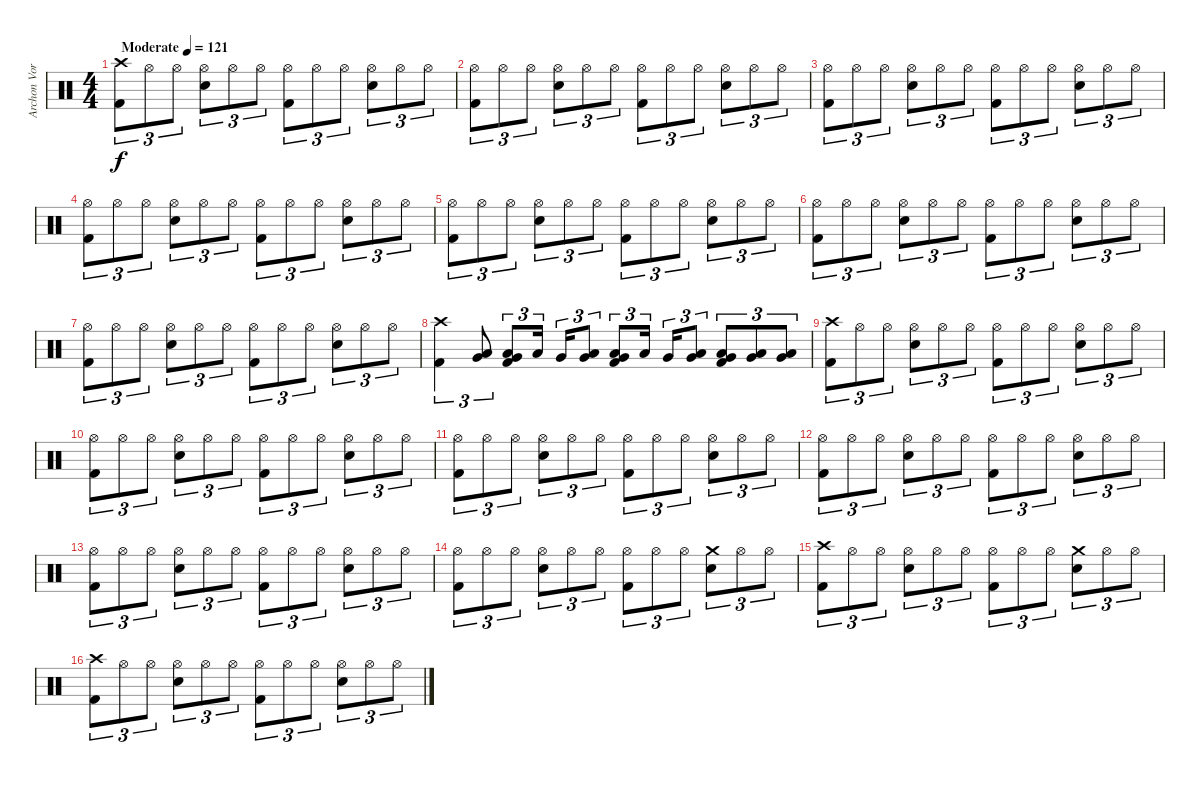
\track ("Archon Vorskaath" "Archon Vor") {instrument percussion}
\staff {score}
\articulation defaults
\ts (4 4)
\tempo (121 "Moderate")
\clef neutral
\ks c
("Crash high (hit)" "Kick (hit) 2").8{tu (3 2) dy f} "Hi-Hat (open)".8{tu (3 2)} "Hi-Hat (open)".8{tu (3 2)} ("Hi-Hat (open)" "Electric Snare (hit)").8{tu (3 2)} "Hi-Hat (open)".8{tu (3 2)} "Hi-Hat (open)".8{tu (3 2)} ("Hi-Hat (open)" "Kick (hit) 2").8{tu (3 2)} "Hi-Hat (open)".8{tu (3 2)} "Hi-Hat (open)".8{tu (3 2)} ("Hi-Hat (open)" "Electric Snare (hit)").8{tu (3 2)} "Hi-Hat (open)".8{tu (3 2)} "Hi-Hat (open)".8{tu (3 2)} |
("Hi-Hat (open)" "Kick (hit) 2").8{tu (3 2)} "Hi-Hat (open)".8{tu (3 2)} "Hi-Hat (open)".8{tu (3 2)} ("Hi-Hat (open)" "Electric Snare (hit)").8{tu (3 2)} "Hi-Hat (open)".8{tu (3 2)} "Hi-Hat (open)".8{tu (3 2)} ("Hi-Hat (open)" "Kick (hit) 2").8{tu (3 2)} "Hi-Hat (open)".8{tu (3 2)} "Hi-Hat (open)".8{tu (3 2)} ("Hi-Hat (open)" "Electric Snare (hit)").8{tu (3 2)} "Hi-Hat (open)".8{tu (3 2)} "Hi-Hat (open)".8{tu (3 2)} |
("Hi-Hat (open)" "Kick (hit) 2").8{tu (3 2)} "Hi-Hat (open)".8{tu (3 2)} "Hi-Hat (open)".8{tu (3 2)} ("Hi-Hat (open)" "Electric Snare (hit)").8{tu (3 2)} "Hi-Hat (open)".8{tu (3 2)} "Hi-Hat (open)".8{tu (3 2)} ("Hi-Hat (open)" "Kick (hit) 2").8{tu (3 2)} "Hi-Hat (open)".8{tu (3 2)} "Hi-Hat (open)".8{tu (3 2)} ("Hi-Hat (open)" "Electric Snare (hit)").8{tu (3 2)} "Hi-Hat (open)".8{tu (3 2)} "Hi-Hat (open)".8{tu (3 2)} |
("Hi-Hat (open)" "Kick (hit) 2").8{tu (3 2)} "Hi-Hat (open)".8{tu (3 2)} "Hi-Hat (open)".8{tu (3 2)} ("Hi-Hat (open)" "Electric Snare (hit)").8{tu (3 2)} "Hi-Hat (open)".8{tu (3 2)} "Hi-Hat (open)".8{tu (3 2)} ("Hi-Hat (open)" "Kick (hit) 2").8{tu (3 2)} "Hi-Hat (open)".8{tu (3 2)} "Hi-Hat (open)".8{tu (3 2)} ("Hi-Hat (open)" "Electric Snare (hit)").8{tu (3 2)} "Hi-Hat (open)".8{tu (3 2)} "Hi-Hat (open)".8{tu (3 2)} |
("Hi-Hat (open)" "Kick (hit) 2").8{tu (3 2)} "Hi-Hat (open)".8{tu (3 2)} "Hi-Hat (open)".8{tu (3 2)} ("Hi-Hat (open)" "Electric Snare (hit)").8{tu (3 2)} "Hi-Hat (open)".8{tu (3 2)} "Hi-Hat (open)".8{tu (3 2)} ("Hi-Hat (open)" "Kick (hit) 2").8{tu (3 2)} "Hi-Hat (open)".8{tu (3 2)} "Hi-Hat (open)".8{tu (3 2)} ("Hi-Hat (open)" "Electric Snare (hit)").8{tu (3 2)} "Hi-Hat (open)".8{tu (3 2)} "Hi-Hat (open)".8{tu (3 2)} |
("Hi-Hat (open)" "Kick (hit) 2").8{tu (3 2)} "Hi-Hat (open)".8{tu (3 2)} "Hi-Hat (open)".8{tu (3 2)} ("Hi-Hat (open)" "Electric Snare (hit)").8{tu (3 2)} "Hi-Hat (open)".8{tu (3 2)} "Hi-Hat (open)".8{tu (3 2)} ("Hi-Hat (open)" "Kick (hit) 2").8{tu (3 2)} "Hi-Hat (open)".8{tu (3 2)} "Hi-Hat (open)".8{tu (3 2)} ("Hi-Hat (open)" "Electric Snare (hit)").8{tu (3 2)} "Hi-Hat (open)".8{tu (3 2)} "Hi-Hat (open)".8{tu (3 2)} |
("Hi-Hat (open)" "Kick (hit) 2").8{tu (3 2)} "Hi-Hat (open)".8{tu (3 2)} "Hi-Hat (open)".8{tu (3 2)} ("Hi-Hat (open)" "Electric Snare (hit)").8{tu (3 2)} "Hi-Hat (open)".8{tu (3 2)} "Hi-Hat (open)".8{tu (3 2)} ("Hi-Hat (open)" "Kick (hit) 2").8{tu (3 2)} "Hi-Hat (open)".8{tu (3 2)} "Hi-Hat (open)".8{tu (3 2)} ("Hi-Hat (open)" "Electric Snare (hit)").8{tu (3 2)} "Hi-Hat (open)".8{tu (3 2)} "Hi-Hat (open)".8{tu (3 2)} |
("Crash high (hit)" "Kick (hit) 2").4{tu (3 2)} ("Very Low Tom (hit)" "Low Tom (hit)").8{tu (3 2)} ("Very Low Tom (hit)" "Low Tom (hit)" "Kick (hit) 2").8{tu (3 2)} "Low Tom (hit)".16{tu (3 2) beam splitsecondary} "Very Low Tom (hit)".16{tu (3 2)} ("Very Low Tom (hit)" "Low Tom (hit)").8{tu (3 2)} ("Very Low Tom (hit)" "Low Tom (hit)" "Kick (hit) 2").8{tu (3 2)} "Low Tom (hit)".16{tu (3 2) beam splitsecondary} "Very Low Tom (hit)".16{tu (3 2)} ("Very Low Tom (hit)" "Low Tom (hit)").8{tu (3 2)} ("Low Floor Tom (hit)" "Very Low Tom (hit)" "Kick (hit) 2").8{tu (3 2)} ("Low Floor Tom (hit)" "Very Low Tom (hit)").8{tu (3 2)} ("Low Floor Tom (hit)" "Very Low Tom (hit)").8{tu (3 2)} |
("Crash high (hit)" "Kick (hit) 2").8{tu (3 2)} "Hi-Hat (open)".8{tu (3 2)} "Hi-Hat (open)".8{tu (3 2)} ("Hi-Hat (open)" "Electric Snare (hit)").8{tu (3 2)} "Hi-Hat (open)".8{tu (3 2)} "Hi-Hat (open)".8{tu (3 2)} ("Hi-Hat (open)" "Kick (hit) 2").8{tu (3 2)} "Hi-Hat (open)".8{tu (3 2)} "Hi-Hat (open)".8{tu (3 2)} ("Hi-Hat (open)" "Electric Snare (hit)").8{tu (3 2)} "Hi-Hat (open)".8{tu (3 2)} "Hi-Hat (open)".8{tu (3 2)} |
("Hi-Hat (open)" "Kick (hit) 2").8{tu (3 2)} "Hi-Hat (open)".8{tu (3 2)} "Hi-Hat (open)".8{tu (3 2)} ("Hi-Hat (open)" "Electric Snare (hit)").8{tu (3 2)} "Hi-Hat (open)".8{tu (3 2)} "Hi-Hat (open)".8{tu (3 2)} ("Hi-Hat (open)" "Kick (hit) 2").8{tu (3 2)} "Hi-Hat (open)".8{tu (3 2)} "Hi-Hat (open)".8{tu (3 2)} ("Hi-Hat (open)" "Electric Snare (hit)").8{tu (3 2)} "Hi-Hat (open)".8{tu (3 2)} "Hi-Hat (open)".8{tu (3 2)} |
("Hi-Hat (open)" "Kick (hit) 2").8{tu (3 2)} "Hi-Hat (open)".8{tu (3 2)} "Hi-Hat (open)".8{tu (3 2)} ("Hi-Hat (open)" "Electric Snare (hit)").8{tu (3 2)} "Hi-Hat (open)".8{tu (3 2)} "Hi-Hat (open)".8{tu (3 2)} ("Hi-Hat (open)" "Kick (hit) 2").8{tu (3 2)} "Hi-Hat (open)".8{tu (3 2)} "Hi-Hat (open)".8{tu (3 2)} ("Hi-Hat (open)" "Electric Snare (hit)").8{tu (3 2)} "Hi-Hat (open)".8{tu (3 2)} "Hi-Hat (open)".8{tu (3 2)} |
("Hi-Hat (open)" "Kick (hit) 2").8{tu (3 2)} "Hi-Hat (open)".8{tu (3 2)} "Hi-Hat (open)".8{tu (3 2)} ("Hi-Hat (open)" "Electric Snare (hit)").8{tu (3 2)} "Hi-Hat (open)".8{tu (3 2)} "Hi-Hat (open)".8{tu (3 2)} ("Hi-Hat (open)" "Kick (hit) 2").8{tu (3 2)} "Hi-Hat (open)".8{tu (3 2)} "Hi-Hat (open)".8{tu (3 2)} ("Hi-Hat (open)" "Electric Snare (hit)").8{tu (3 2)} "Hi-Hat (open)".8{tu (3 2)} "Hi-Hat (open)".8{tu (3 2)} |
("Hi-Hat (open)" "Kick (hit) 2").8{tu (3 2)} "Hi-Hat (open)".8{tu (3 2)} "Hi-Hat (open)".8{tu (3 2)} ("Hi-Hat (open)" "Electric Snare (hit)").8{tu (3 2)} "Hi-Hat (open)".8{tu (3 2)} "Hi-Hat (open)".8{tu (3 2)} ("Hi-Hat (open)" "Kick (hit) 2").8{tu (3 2)} "Hi-Hat (open)".8{tu (3 2)} "Hi-Hat (open)".8{tu (3 2)} ("Hi-Hat (open)" "Electric Snare (hit)").8{tu (3 2)} "Hi-Hat (open)".8{tu (3 2)} "Hi-Hat (open)".8{tu (3 2)} |
("Hi-Hat (open)" "Kick (hit) 2").8{tu (3 2)} "Hi-Hat (open)".8{tu (3 2)} "Hi-Hat (open)".8{tu (3 2)} ("Hi-Hat (open)" "Electric Snare (hit)").8{tu (3 2)} "Hi-Hat (open)".8{tu (3 2)} "Hi-Hat (open)".8{tu (3 2)} ("Hi-Hat (open)" "Kick (hit) 2").8{tu (3 2)} "Hi-Hat (open)".8{tu (3 2)} "Hi-Hat (open)".8{tu (3 2)} ("Crash medium (hit)" "Electric Snare (hit)").8{tu (3 2)} "Hi-Hat (open)".8{tu (3 2)} "Hi-Hat (open)".8{tu (3 2)} |
("Crash high (hit)" "Kick (hit) 2").8{tu (3 2)} "Hi-Hat (open)".8{tu (3 2)} "Hi-Hat (open)".8{tu (3 2)} ("Hi-Hat (open)" "Electric Snare (hit)").8{tu (3 2)} "Hi-Hat (open)".8{tu (3 2)} "Hi-Hat (open)".8{tu (3 2)} ("Hi-Hat (open)" "Kick (hit) 2").8{tu (3 2)} "Hi-Hat (open)".8{tu (3 2)} "Hi-Hat (open)".8{tu (3 2)} ("Crash medium (hit)" "Electric Snare (hit)").8{tu (3 2)} "Hi-Hat (open)".8{tu (3 2)} "Hi-Hat (open)".8{tu (3 2)} |
("Crash high (hit)" "Kick (hit) 2").8{tu (3 2)} "Hi-Hat (open)".8{tu (3 2)} "Hi-Hat (open)".8{tu (3 2)} ("Hi-Hat (open)" "Electric Snare (hit)").8{tu (3 2)} "Hi-Hat (open)".8{tu (3 2)} "Hi-Hat (open)".8{tu (3 2)} ("Hi-Hat (open)" "Kick (hit) 2").8{tu (3 2)} "Hi-Hat (open)".8{tu (3 2)} "Hi-Hat (open)".8{tu (3 2)} ("Hi-Hat (open)" "Electric Snare (hit)").8{tu (3 2)} "Hi-Hat (open)".8{tu (3 2)} "Hi-Hat (open)".8{tu (3 2)}
